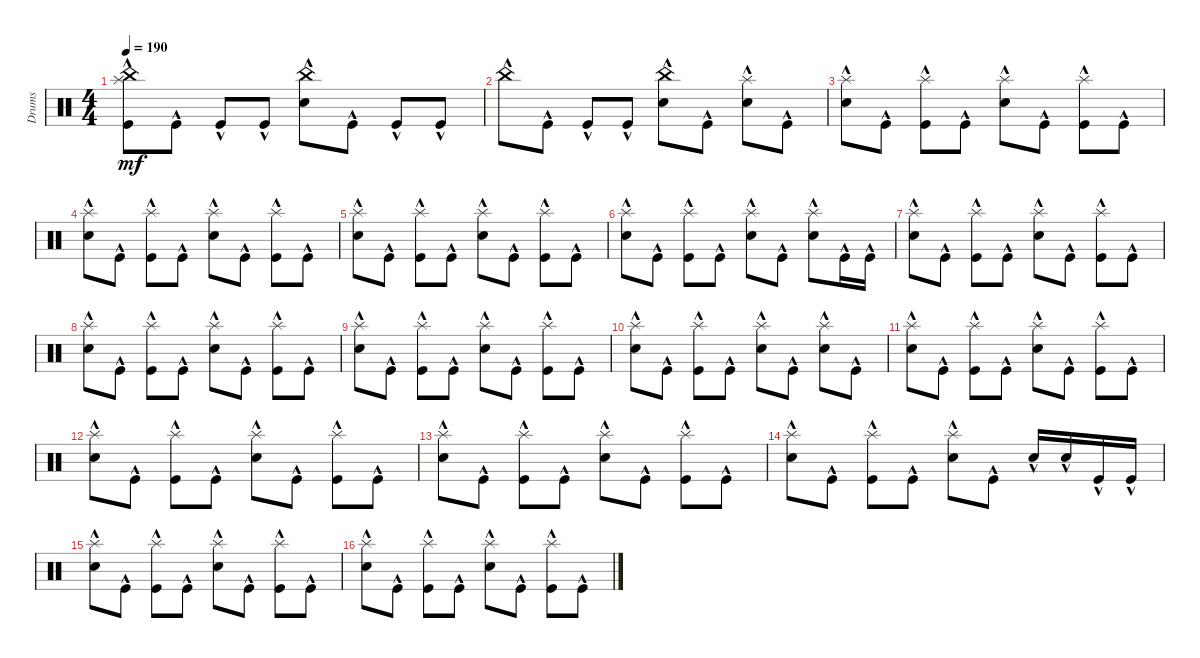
\track ("Drums" "Drums") {instrument percussion}
\staff {score}
\articulation defaults
\ts (4 4)
\tempo 190
\clef neutral
\ks c
("Kick (hit)"{hac} "Splash (hit)"{hac} "China (hit)"{hac}).8{dy mf} "Kick (hit)"{hac}.8 "Kick (hit)"{hac}.8 "Kick (hit)"{hac}.8 ("Snare (hit) 2"{hac} "China (hit)"{hac}).8 "Kick (hit)"{hac}.8 "Kick (hit)"{hac}.8 "Kick (hit)"{hac}.8 |
"China (hit)"{hac}.8 "Kick (hit)"{hac}.8 "Kick (hit)"{hac}.8 "Kick (hit)"{hac}.8 ("Snare (hit) 2"{hac} "China (hit)"{hac}).8 "Kick (hit)"{hac}.8 ("Snare (hit) 2"{hac} "Splash (hit)"{hac}).8 "Kick (hit)"{hac}.8 |
("Snare (hit) 2"{hac} "Splash (hit)"{hac}).8 "Kick (hit)"{hac}.8 ("Kick (hit)"{hac} "Splash (hit)"{hac}).8 "Kick (hit)"{hac}.8 ("Snare (hit) 2"{hac} "Splash (hit)"{hac}).8 "Kick (hit)"{hac}.8 ("Kick (hit)"{hac} "Splash (hit)"{hac}).8 "Kick (hit)"{hac}.8 |
("Snare (hit) 2"{hac} "Splash (hit)"{hac}).8 "Kick (hit)"{hac}.8 ("Kick (hit)"{hac} "Splash (hit)"{hac}).8 "Kick (hit)"{hac}.8 ("Snare (hit) 2"{hac} "Splash (hit)"{hac}).8 "Kick (hit)"{hac}.8 ("Kick (hit)"{hac} "Splash (hit)"{hac}).8 "Kick (hit)"{hac}.8 |
("Snare (hit) 2"{hac} "Splash (hit)"{hac}).8 "Kick (hit)"{hac}.8 ("Kick (hit)"{hac} "Splash (hit)"{hac}).8 "Kick (hit)"{hac}.8 ("Snare (hit) 2"{hac} "Splash (hit)"{hac}).8 "Kick (hit)"{hac}.8 ("Kick (hit)"{hac} "Splash (hit)"{hac}).8 "Kick (hit)"{hac}.8 |
("Snare (hit) 2"{hac} "Splash (hit)"{hac}).8 "Kick (hit)"{hac}.8 ("Kick (hit)"{hac} "Splash (hit)"{hac}).8 "Kick (hit)"{hac}.8 ("Snare (hit) 2"{hac} "Splash (hit)"{hac}).8 "Kick (hit)"{hac}.8 ("Splash (hit)"{hac} "Snare (hit) 2"{hac}).8 "Kick (hit)"{hac}.16 "Kick (hit)"{hac}.16 |
("Snare (hit) 2"{hac} "Splash (hit)"{hac}).8 "Kick (hit)"{hac}.8 ("Kick (hit)"{hac} "Splash (hit)"{hac}).8 "Kick (hit)"{hac}.8 ("Snare (hit) 2"{hac} "Splash (hit)"{hac}).8 "Kick (hit)"{hac}.8 ("Kick (hit)"{hac} "Splash (hit)"{hac}).8 "Kick (hit)"{hac}.8 |
("Snare (hit) 2"{hac} "Splash (hit)"{hac}).8 "Kick (hit)"{hac}.8 ("Kick (hit)"{hac} "Splash (hit)"{hac}).8 "Kick (hit)"{hac}.8 ("Snare (hit) 2"{hac} "Splash (hit)"{hac}).8 "Kick (hit)"{hac}.8 ("Kick (hit)"{hac} "Splash (hit)"{hac}).8 "Kick (hit)"{hac}.8 |
("Snare (hit) 2"{hac} "Splash (hit)"{hac}).8 "Kick (hit)"{hac}.8 ("Kick (hit)"{hac} "Splash (hit)"{hac}).8 "Kick (hit)"{hac}.8 ("Snare (hit) 2"{hac} "Splash (hit)"{hac}).8 "Kick (hit)"{hac}.8 ("Kick (hit)"{hac} "Splash (hit)"{hac}).8 "Kick (hit)"{hac}.8 |
("Snare (hit) 2"{hac} "Splash (hit)"{hac}).8 "Kick (hit)"{hac}.8 ("Kick (hit)"{hac} "Splash (hit)"{hac}).8 "Kick (hit)"{hac}.8 ("Snare (hit) 2"{hac} "Splash (hit)"{hac}).8 "Kick (hit)"{hac}.8 ("Splash (hit)"{hac} "Snare (hit) 2"{hac}).8 "Kick (hit)"{hac}.8 |
("Snare (hit) 2"{hac} "Splash (hit)"{hac}).8 "Kick (hit)"{hac}.8 ("Kick (hit)"{hac} "Splash (hit)"{hac}).8 "Kick (hit)"{hac}.8 ("Snare (hit) 2"{hac} "Splash (hit)"{hac}).8 "Kick (hit)"{hac}.8 ("Kick (hit)"{hac} "Splash (hit)"{hac}).8 "Kick (hit)"{hac}.8 |
("Snare (hit) 2"{hac} "Splash (hit)"{hac}).8 "Kick (hit)"{hac}.8 ("Kick (hit)"{hac} "Splash (hit)"{hac}).8 "Kick (hit)"{hac}.8 ("Snare (hit) 2"{hac} "Splash (hit)"{hac}).8 "Kick (hit)"{hac}.8 ("Kick (hit)"{hac} "Splash (hit)"{hac}).8 "Kick (hit)"{hac}.8 |
("Snare (hit) 2"{hac} "Splash (hit)"{hac}).8 "Kick (hit)"{hac}.8 ("Kick (hit)"{hac} "Splash (hit)"{hac}).8 "Kick (hit)"{hac}.8 ("Snare (hit) 2"{hac} "Splash (hit)"{hac}).8 "Kick (hit)"{hac}.8 ("Kick (hit)"{hac} "Splash (hit)"{hac}).8 "Kick (hit)"{hac}.8 |
("Snare (hit) 2"{hac} "Splash (hit)"{hac}).8 "Kick (hit)"{hac}.8 ("Kick (hit)"{hac} "Splash (hit)"{hac}).8 "Kick (hit)"{hac}.8 ("Snare (hit) 2"{hac} "Splash (hit)"{hac}).8 "Kick (hit)"{hac}.8 "Snare (hit) 2"{hac}.16 "Snare (hit) 2"{hac}.16 "Kick (hit)"{hac}.16 "Kick (hit)"{hac}.16 |
("Snare (hit) 2"{hac} "Splash (hit)"{hac}).8 "Kick (hit)"{hac}.8 ("Kick (hit)"{hac} "Splash (hit)"{hac}).8 "Kick (hit)"{hac}.8 ("Snare (hit) 2"{hac} "Splash (hit)"{hac}).8 "Kick (hit)"{hac}.8 ("Kick (hit)"{hac} "Splash (hit)"{hac}).8 "Kick (hit)"{hac}.8 |
("Snare (hit) 2"{hac} "Splash (hit)"{hac}).8 "Kick (hit)"{hac}.8 ("Kick (hit)"{hac} "Splash (hit)"{hac}).8 "Kick (hit)"{hac}.8 ("Snare (hit) 2"{hac} "Splash (hit)"{hac}).8 "Kick (hit)"{hac}.8 ("Kick (hit)"{hac} "Splash (hit)"{hac}).8 "Kick (hit)"{hac}.8
